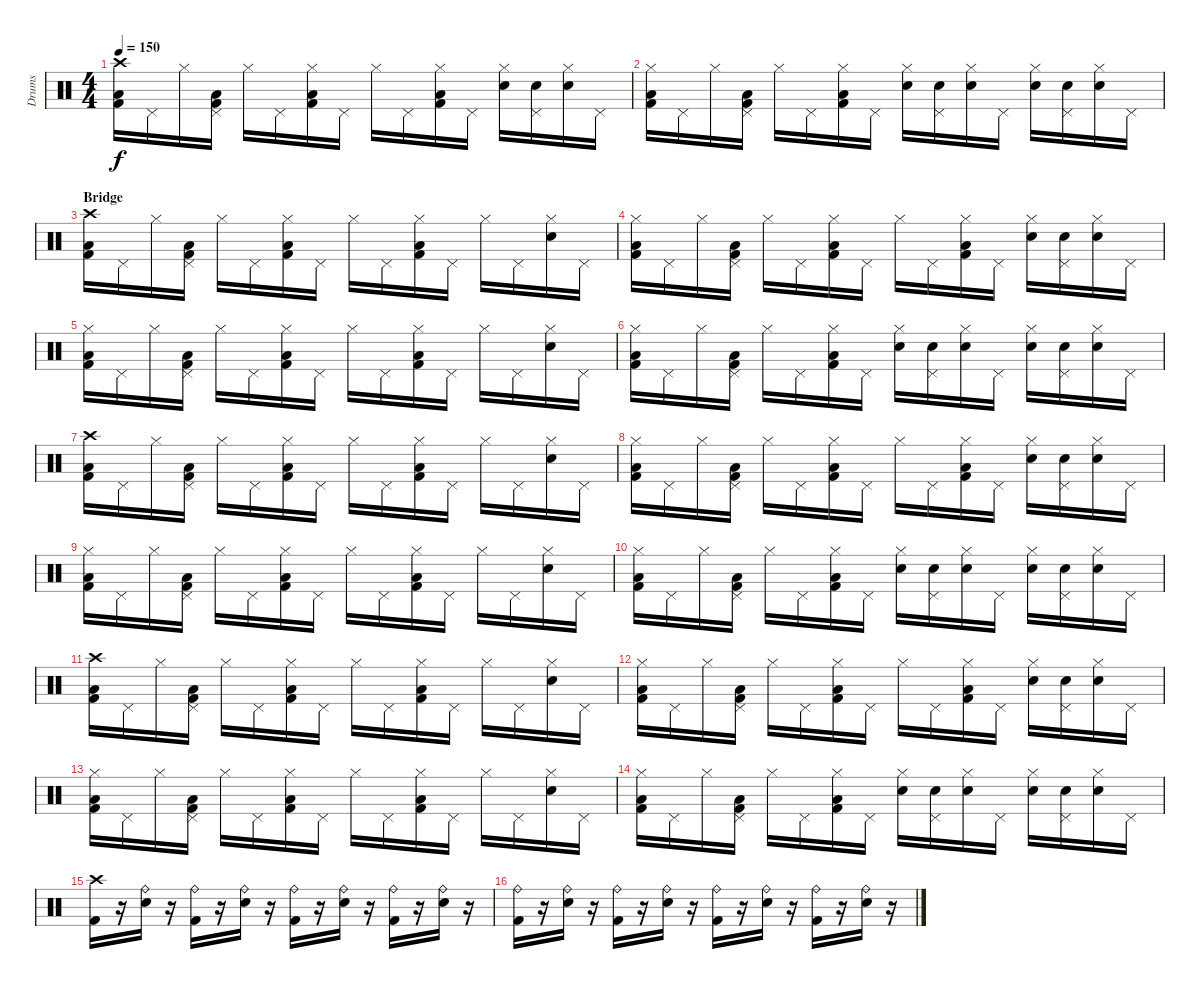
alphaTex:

\track ("Drums" "Drums") {instrument percussion}
\staff {score}
\articulation defaults
\ts (4 4)
\tempo 150
\clef neutral
\ks c
("Crash high (hit)" "Low Floor Tom (hit)" "Kick (hit) 2").16{dy f} "Pedal Hi-Hat (hit)".16 "Hi-Hat (closed)".16 ("Pedal Hi-Hat (hit)" "Low Floor Tom (hit)" "Kick (hit) 2").16 "Hi-Hat (closed)".16 "Pedal Hi-Hat (hit)".16 ("Hi-Hat (closed)" "Low Floor Tom (hit)" "Kick (hit) 2").16 "Pedal Hi-Hat (hit)".16 "Hi-Hat (closed)".16 "Pedal Hi-Hat (hit)".16 ("Hi-Hat (closed)" "Low Floor Tom (hit)" "Kick (hit) 2").16 "Pedal Hi-Hat (hit)".16 ("Hi-Hat (closed)" "Electric Snare (hit)").16 ("Pedal Hi-Hat (hit)" "Electric Snare (hit)").16 ("Hi-Hat (closed)" "Electric Snare (hit)").16 "Pedal Hi-Hat (hit)".16 |
("Hi-Hat (closed)" "Low Floor Tom (hit)" "Kick (hit) 2").16 "Pedal Hi-Hat (hit)".16 "Hi-Hat (closed)".16 ("Pedal Hi-Hat (hit)" "Low Floor Tom (hit)" "Kick (hit) 2").16 "Hi-Hat (closed)".16 "Pedal Hi-Hat (hit)".16 ("Hi-Hat (closed)" "Low Floor Tom (hit)" "Kick (hit) 2").16 "Pedal Hi-Hat (hit)".16 ("Hi-Hat (closed)" "Electric Snare (hit)").16 ("Pedal Hi-Hat (hit)" "Electric Snare (hit)").16 ("Hi-Hat (closed)" "Electric Snare (hit)").16 "Pedal Hi-Hat (hit)".16 ("Hi-Hat (closed)" "Electric Snare (hit)").16 ("Pedal Hi-Hat (hit)" "Electric Snare (hit)").16 ("Hi-Hat (closed)" "Electric Snare (hit)").16 "Pedal Hi-Hat (hit)".16 |
\section ("" "Bridge")
("Crash high (hit)" "Low Floor Tom (hit)" "Kick (hit) 2").16 "Pedal Hi-Hat (hit)".16 "Hi-Hat (closed)".16 ("Pedal Hi-Hat (hit)" "Low Floor Tom (hit)" "Kick (hit) 2").16 "Hi-Hat (closed)".16 "Pedal Hi-Hat (hit)".16 ("Hi-Hat (closed)" "Low Floor Tom (hit)" "Kick (hit) 2").16 "Pedal Hi-Hat (hit)".16 "Hi-Hat (closed)".16 "Pedal Hi-Hat (hit)".16 ("Hi-Hat (closed)" "Low Floor Tom (hit)" "Kick (hit) 2").16 "Pedal Hi-Hat (hit)".16 "Hi-Hat (closed)".16 "Pedal Hi-Hat (hit)".16 ("Hi-Hat (closed)" "Electric Snare (hit)").16 "Pedal Hi-Hat (hit)".16 |
("Hi-Hat (closed)" "Low Floor Tom (hit)" "Kick (hit) 2").16 "Pedal Hi-Hat (hit)".16 "Hi-Hat (closed)".16 ("Pedal Hi-Hat (hit)" "Low Floor Tom (hit)" "Kick (hit) 2").16 "Hi-Hat (closed)".16 "Pedal Hi-Hat (hit)".16 ("Hi-Hat (closed)" "Low Floor Tom (hit)" "Kick (hit) 2").16 "Pedal Hi-Hat (hit)".16 "Hi-Hat (closed)".16 "Pedal Hi-Hat (hit)".16 ("Hi-Hat (closed)" "Low Floor Tom (hit)" "Kick (hit) 2").16 "Pedal Hi-Hat (hit)".16 ("Hi-Hat (closed)" "Electric Snare (hit)").16 ("Pedal Hi-Hat (hit)" "Electric Snare (hit)").16 ("Hi-Hat (closed)" "Electric Snare (hit)").16 "Pedal Hi-Hat (hit)".16 |
("Hi-Hat (closed)" "Low Floor Tom (hit)" "Kick (hit) 2").16 "Pedal Hi-Hat (hit)".16 "Hi-Hat (closed)".16 ("Pedal Hi-Hat (hit)" "Low Floor Tom (hit)" "Kick (hit) 2").16 "Hi-Hat (closed)".16 "Pedal Hi-Hat (hit)".16 ("Hi-Hat (closed)" "Low Floor Tom (hit)" "Kick (hit) 2").16 "Pedal Hi-Hat (hit)".16 "Hi-Hat (closed)".16 "Pedal Hi-Hat (hit)".16 ("Hi-Hat (closed)" "Low Floor Tom (hit)" "Kick (hit) 2").16 "Pedal Hi-Hat (hit)".16 "Hi-Hat (closed)".16 "Pedal Hi-Hat (hit)".16 ("Hi-Hat (closed)" "Electric Snare (hit)").16 "Pedal Hi-Hat (hit)".16 |
("Hi-Hat (closed)" "Low Floor Tom (hit)" "Kick (hit) 2").16 "Pedal Hi-Hat (hit)".16 "Hi-Hat (closed)".16 ("Pedal Hi-Hat (hit)" "Low Floor Tom (hit)" "Kick (hit) 2").16 "Hi-Hat (closed)".16 "Pedal Hi-Hat (hit)".16 ("Hi-Hat (closed)" "Low Floor Tom (hit)" "Kick (hit) 2").16 "Pedal Hi-Hat (hit)".16 ("Hi-Hat (closed)" "Electric Snare (hit)").16 ("Pedal Hi-Hat (hit)" "Electric Snare (hit)").16 ("Hi-Hat (closed)" "Electric Snare (hit)").16 "Pedal Hi-Hat (hit)".16 ("Hi-Hat (closed)" "Electric Snare (hit)").16 ("Pedal Hi-Hat (hit)" "Electric Snare (hit)").16 ("Hi-Hat (closed)" "Electric Snare (hit)").16 "Pedal Hi-Hat (hit)".16 |
("Crash high (hit)" "Low Floor Tom (hit)" "Kick (hit) 2").16 "Pedal Hi-Hat (hit)".16 "Hi-Hat (closed)".16 ("Pedal Hi-Hat (hit)" "Low Floor Tom (hit)" "Kick (hit) 2").16 "Hi-Hat (closed)".16 "Pedal Hi-Hat (hit)".16 ("Hi-Hat (closed)" "Low Floor Tom (hit)" "Kick (hit) 2").16 "Pedal Hi-Hat (hit)".16 "Hi-Hat (closed)".16 "Pedal Hi-Hat (hit)".16 ("Hi-Hat (closed)" "Low Floor Tom (hit)" "Kick (hit) 2").16 "Pedal Hi-Hat (hit)".16 "Hi-Hat (closed)".16 "Pedal Hi-Hat (hit)".16 ("Hi-Hat (closed)" "Electric Snare (hit)").16 "Pedal Hi-Hat (hit)".16 |
("Hi-Hat (closed)" "Low Floor Tom (hit)" "Kick (hit) 2").16 "Pedal Hi-Hat (hit)".16 "Hi-Hat (closed)".16 ("Pedal Hi-Hat (hit)" "Low Floor Tom (hit)" "Kick (hit) 2").16 "Hi-Hat (closed)".16 "Pedal Hi-Hat (hit)".16 ("Hi-Hat (closed)" "Low Floor Tom (hit)" "Kick (hit) 2").16 "Pedal Hi-Hat (hit)".16 "Hi-Hat (closed)".16 "Pedal Hi-Hat (hit)".16 ("Hi-Hat (closed)" "Low Floor Tom (hit)" "Kick (hit) 2").16 "Pedal Hi-Hat (hit)".16 ("Hi-Hat (closed)" "Electric Snare (hit)").16 ("Pedal Hi-Hat (hit)" "Electric Snare (hit)").16 ("Hi-Hat (closed)" "Electric Snare (hit)").16 "Pedal Hi-Hat (hit)".16 |
("Hi-Hat (closed)" "Low Floor Tom (hit)" "Kick (hit) 2").16 "Pedal Hi-Hat (hit)".16 "Hi-Hat (closed)".16 ("Pedal Hi-Hat (hit)" "Low Floor Tom (hit)" "Kick (hit) 2").16 "Hi-Hat (closed)".16 "Pedal Hi-Hat (hit)".16 ("Hi-Hat (closed)" "Low Floor Tom (hit)" "Kick (hit) 2").16 "Pedal Hi-Hat (hit)".16 "Hi-Hat (closed)".16 "Pedal Hi-Hat (hit)".16 ("Hi-Hat (closed)" "Low Floor Tom (hit)" "Kick (hit) 2").16 "Pedal Hi-Hat (hit)".16 "Hi-Hat (closed)".16 "Pedal Hi-Hat (hit)".16 ("Hi-Hat (closed)" "Electric Snare (hit)").16 "Pedal Hi-Hat (hit)".16 |
("Hi-Hat (closed)" "Low Floor Tom (hit)" "Kick (hit) 2").16 "Pedal Hi-Hat (hit)".16 "Hi-Hat (closed)".16 ("Pedal Hi-Hat (hit)" "Low Floor Tom (hit)" "Kick (hit) 2").16 "Hi-Hat (closed)".16 "Pedal Hi-Hat (hit)".16 ("Hi-Hat (closed)" "Low Floor Tom (hit)" "Kick (hit) 2").16 "Pedal Hi-Hat (hit)".16 ("Hi-Hat (closed)" "Electric Snare (hit)").16 ("Pedal Hi-Hat (hit)" "Electric Snare (hit)").16 ("Hi-Hat (closed)" "Electric Snare (hit)").16 "Pedal Hi-Hat (hit)".16 ("Hi-Hat (closed)" "Electric Snare (hit)").16 ("Pedal Hi-Hat (hit)" "Electric Snare (hit)").16 ("Hi-Hat (closed)" "Electric Snare (hit)").16 "Pedal Hi-Hat (hit)".16 |
("Crash high (hit)" "Low Floor Tom (hit)" "Kick (hit) 2").16 "Pedal Hi-Hat (hit)".16 "Hi-Hat (closed)".16 ("Pedal Hi-Hat (hit)" "Low Floor Tom (hit)" "Kick (hit) 2").16 "Hi-Hat (closed)".16 "Pedal Hi-Hat (hit)".16 ("Hi-Hat (closed)" "Low Floor Tom (hit)" "Kick (hit) 2").16 "Pedal Hi-Hat (hit)".16 "Hi-Hat (closed)".16 "Pedal Hi-Hat (hit)".16 ("Hi-Hat (closed)" "Low Floor Tom (hit)" "Kick (hit) 2").16 "Pedal Hi-Hat (hit)".16 "Hi-Hat (closed)".16 "Pedal Hi-Hat (hit)".16 ("Hi-Hat (closed)" "Electric Snare (hit)").16 "Pedal Hi-Hat (hit)".16 |
("Hi-Hat (closed)" "Low Floor Tom (hit)" "Kick (hit) 2").16 "Pedal Hi-Hat (hit)".16 "Hi-Hat (closed)".16 ("Pedal Hi-Hat (hit)" "Low Floor Tom (hit)" "Kick (hit) 2").16 "Hi-Hat (closed)".16 "Pedal Hi-Hat (hit)".16 ("Hi-Hat (closed)" "Low Floor Tom (hit)" "Kick (hit) 2").16 "Pedal Hi-Hat (hit)".16 "Hi-Hat (closed)".16 "Pedal Hi-Hat (hit)".16 ("Hi-Hat (closed)" "Low Floor Tom (hit)" "Kick (hit) 2").16 "Pedal Hi-Hat (hit)".16 ("Hi-Hat (closed)" "Electric Snare (hit)").16 ("Pedal Hi-Hat (hit)" "Electric Snare (hit)").16 ("Hi-Hat (closed)" "Electric Snare (hit)").16 "Pedal Hi-Hat (hit)".16 |
("Hi-Hat (closed)" "Low Floor Tom (hit)" "Kick (hit) 2").16 "Pedal Hi-Hat (hit)".16 "Hi-Hat (closed)".16 ("Pedal Hi-Hat (hit)" "Low Floor Tom (hit)" "Kick (hit) 2").16 "Hi-Hat (closed)".16 "Pedal Hi-Hat (hit)".16 ("Hi-Hat (closed)" "Low Floor Tom (hit)" "Kick (hit) 2").16 "Pedal Hi-Hat (hit)".16 "Hi-Hat (closed)".16 "Pedal Hi-Hat (hit)".16 ("Hi-Hat (closed)" "Low Floor Tom (hit)" "Kick (hit) 2").16 "Pedal Hi-Hat (hit)".16 "Hi-Hat (closed)".16 "Pedal Hi-Hat (hit)".16 ("Hi-Hat (closed)" "Electric Snare (hit)").16 "Pedal Hi-Hat (hit)".16 |
("Hi-Hat (closed)" "Low Floor Tom (hit)" "Kick (hit) 2").16 "Pedal Hi-Hat (hit)".16 "Hi-Hat (closed)".16 ("Pedal Hi-Hat (hit)" "Low Floor Tom (hit)" "Kick (hit) 2").16 "Hi-Hat (closed)".16 "Pedal Hi-Hat (hit)".16 ("Hi-Hat (closed)" "Low Floor Tom (hit)" "Kick (hit) 2").16 "Pedal Hi-Hat (hit)".16 ("Hi-Hat (closed)" "Electric Snare (hit)").16 ("Pedal Hi-Hat (hit)" "Electric Snare (hit)").16 ("Hi-Hat (closed)" "Electric Snare (hit)").16 "Pedal Hi-Hat (hit)".16 ("Hi-Hat (closed)" "Electric Snare (hit)").16 ("Pedal Hi-Hat (hit)" "Electric Snare (hit)").16 ("Hi-Hat (closed)" "Electric Snare (hit)").16 "Pedal Hi-Hat (hit)".16 |
("Crash high (hit)" "Kick (hit) 2").16 r.16 ("Ride (bell)" "Electric Snare (hit)").16 r.16 ("Ride (bell)" "Kick (hit) 2").16 r.16 ("Ride (bell)" "Electric Snare (hit)").16 r.16 ("Ride (bell)" "Kick (hit) 2").16 r.16 ("Ride (bell)" "Electric Snare (hit)").16 r.16 ("Ride (bell)" "Kick (hit) 2").16 r.16 ("Ride (bell)" "Electric Snare (hit)").16 r.16 |
("Ride (bell)" "Kick (hit) 2").16 r.16 ("Ride (bell)" "Electric Snare (hit)").16 r.16 ("Ride (bell)" "Kick (hit) 2").16 r.16 ("Ride (bell)" "Electric Snare (hit)").16 r.16 ("Ride (bell)" "Kick (hit) 2").16 r.16 ("Ride (bell)" "Electric Snare (hit)").16 r.16 ("Ride (bell)" "Kick (hit) 2").16 r.16 ("Ride (bell)" "Electric Snare (hit)").16 r.16
